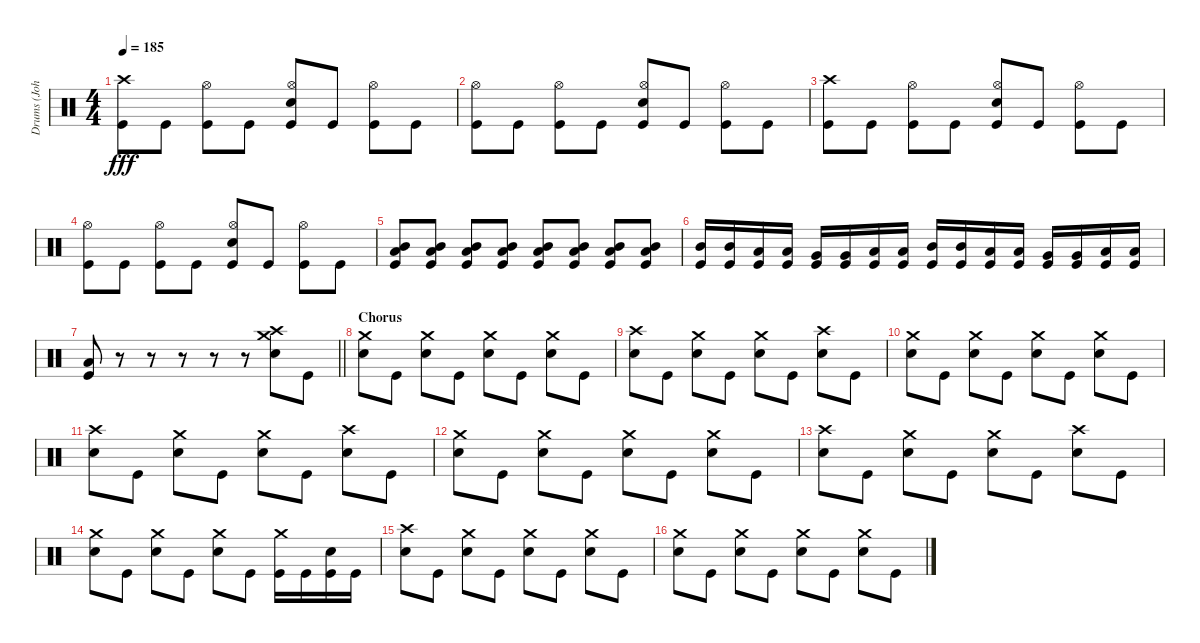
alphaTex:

\track ("Drums (John Bengtsson)" "Drums (Joh") {instrument percussion}
\staff {score}
\articulation defaults
\ts (4 4)
\tempo 185
\clef neutral
\ks c
("Crash high (hit)" "Kick (hit)").8{dy fff} "Kick (hit)".8 ("Hi-Hat (open)" "Kick (hit)").8 "Kick (hit)".8 ("Hi-Hat (open)" "Electric Snare (hit)" "Kick (hit)").8 "Kick (hit)".8 ("Hi-Hat (open)" "Kick (hit)").8 "Kick (hit)".8 |
("Hi-Hat (open)" "Kick (hit)").8 "Kick (hit)".8 ("Hi-Hat (open)" "Kick (hit)").8 "Kick (hit)".8 ("Hi-Hat (open)" "Electric Snare (hit)" "Kick (hit)").8 "Kick (hit)".8 ("Hi-Hat (open)" "Kick (hit)").8 "Kick (hit)".8 |
("Crash high (hit)" "Kick (hit)").8 "Kick (hit)".8 ("Hi-Hat (open)" "Kick (hit)").8 "Kick (hit)".8 ("Hi-Hat (open)" "Electric Snare (hit)" "Kick (hit)").8 "Kick (hit)".8 ("Hi-Hat (open)" "Kick (hit)").8 "Kick (hit)".8 |
("Hi-Hat (open)" "Kick (hit)").8 "Kick (hit)".8 ("Hi-Hat (open)" "Kick (hit)").8 "Kick (hit)".8 ("Hi-Hat (open)" "Electric Snare (hit)" "Kick (hit)").8 "Kick (hit)".8 ("Hi-Hat (open)" "Kick (hit)").8 "Kick (hit)".8 |
("Mid Tom (hit)" "Low Tom (hit)" "Kick (hit)").8 ("Mid Tom (hit)" "Low Tom (hit)" "Kick (hit)").8 ("Mid Tom (hit)" "Low Tom (hit)" "Kick (hit)").8 ("Mid Tom (hit)" "Low Tom (hit)" "Kick (hit)").8 ("Mid Tom (hit)" "Low Tom (hit)" "Kick (hit)").8 ("Mid Tom (hit)" "Low Tom (hit)" "Kick (hit)").8 ("Mid Tom (hit)" "Low Tom (hit)" "Kick (hit)").8 ("Mid Tom (hit)" "Low Tom (hit)" "Kick (hit)").8 |
("Mid Tom (hit)" "Kick (hit)").16 ("Mid Tom (hit)" "Kick (hit)").16 ("Low Tom (hit)" "Kick (hit)").16 ("Low Tom (hit)" "Kick (hit)").16 ("Very Low Tom (hit)" "Kick (hit)").16 ("Very Low Tom (hit)" "Kick (hit)").16 ("Low Floor Tom (hit)" "Kick (hit)").16 ("Low Floor Tom (hit)" "Kick (hit)").16 ("Mid Tom (hit)" "Kick (hit)").16 ("Mid Tom (hit)" "Kick (hit)").16 ("Low Tom (hit)" "Kick (hit)").16 ("Low Tom (hit)" "Kick (hit)").16 ("Very Low Tom (hit)" "Kick (hit)").16 ("Very Low Tom (hit)" "Kick (hit)").16 ("Low Floor Tom (hit)" "Kick (hit)").16 ("Low Floor Tom (hit)" "Kick (hit)").16 |
\barLineRight lightlight
("Low Floor Tom (hit)" "Kick (hit)").8 r.8 r.8 r.8 r.8 r.8 ("Crash high (hit)" "Crash medium (hit)" "Electric Snare (hit)").8 "Kick (hit)".8 |
\section ("" "Chorus")
("Crash medium (hit)" "Electric Snare (hit)").8 "Kick (hit)".8 ("Crash medium (hit)" "Electric Snare (hit)").8 "Kick (hit)".8 ("Crash medium (hit)" "Electric Snare (hit)").8 "Kick (hit)".8 ("Crash medium (hit)" "Electric Snare (hit)").8 "Kick (hit)".8 |
("Crash high (hit)" "Electric Snare (hit)").8 "Kick (hit)".8 ("Crash medium (hit)" "Electric Snare (hit)").8 "Kick (hit)".8 ("Crash medium (hit)" "Electric Snare (hit)").8 "Kick (hit)".8 ("Crash high (hit)" "Electric Snare (hit)").8 "Kick (hit)".8 |
("Crash medium (hit)" "Electric Snare (hit)").8 "Kick (hit)".8 ("Crash medium (hit)" "Electric Snare (hit)").8 "Kick (hit)".8 ("Crash medium (hit)" "Electric Snare (hit)").8 "Kick (hit)".8 ("Crash medium (hit)" "Electric Snare (hit)").8 "Kick (hit)".8 |
("Crash high (hit)" "Electric Snare (hit)").8 "Kick (hit)".8 ("Crash medium (hit)" "Electric Snare (hit)").8 "Kick (hit)".8 ("Crash medium (hit)" "Electric Snare (hit)").8 "Kick (hit)".8 ("Crash high (hit)" "Electric Snare (hit)").8 "Kick (hit)".8 |
("Crash medium (hit)" "Electric Snare (hit)").8 "Kick (hit)".8 ("Crash medium (hit)" "Electric Snare (hit)").8 "Kick (hit)".8 ("Crash medium (hit)" "Electric Snare (hit)").8 "Kick (hit)".8 ("Crash medium (hit)" "Electric Snare (hit)").8 "Kick (hit)".8 |
("Crash high (hit)" "Electric Snare (hit)").8 "Kick (hit)".8 ("Crash medium (hit)" "Electric Snare (hit)").8 "Kick (hit)".8 ("Crash medium (hit)" "Electric Snare (hit)").8 "Kick (hit)".8 ("Crash high (hit)" "Electric Snare (hit)").8 "Kick (hit)".8 |
("Crash medium (hit)" "Electric Snare (hit)").8 "Kick (hit)".8 ("Crash medium (hit)" "Electric Snare (hit)").8 "Kick (hit)".8 ("Crash medium (hit)" "Electric Snare (hit)").8 "Kick (hit)".8 ("Crash medium (hit)" "Kick (hit)").16 "Kick (hit)".16 ("Electric Snare (hit)" "Kick (hit)").16 "Kick (hit)".16 |
("Crash high (hit)" "Electric Snare (hit)").8 "Kick (hit)".8 ("Crash medium (hit)" "Electric Snare (hit)").8 "Kick (hit)".8 ("Crash medium (hit)" "Electric Snare (hit)").8 "Kick (hit)".8 ("Crash medium (hit)" "Electric Snare (hit)").8 "Kick (hit)".8 |
("Crash medium (hit)" "Electric Snare (hit)").8 "Kick (hit)".8 ("Crash medium (hit)" "Electric Snare (hit)").8 "Kick (hit)".8 ("Crash medium (hit)" "Electric Snare (hit)").8 "Kick (hit)".8 ("Crash medium (hit)" "Electric Snare (hit)").8 "Kick (hit)".8
